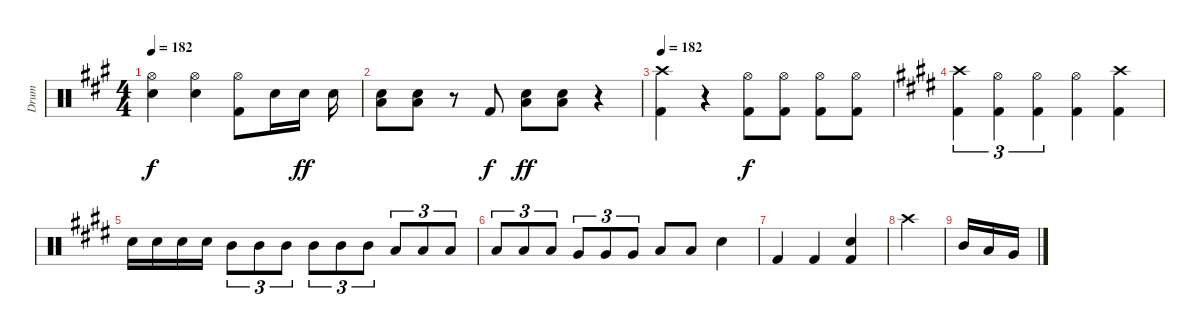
\track ("Drum" "Drum") {instrument percussion}
\staff {score}
\articulation defaults
\ts (4 4)
\tempo 182
\clef neutral
\ks a
("Hi-Hat (open)" "Snare (hit) 2").4{dy f} ("Hi-Hat (open)" "Snare (hit) 2").4 ("Hi-Hat (open)" "Kick (hit) 2").8 "Snare (hit) 2".16 "Snare (hit) 2".16{dy ff} "Snare (hit) 2".16 |
("Snare (hit) 2" "Low Tom (hit)").8 ("Snare (hit) 2" "Low Tom (hit)").8 r.8 "Kick (hit) 2".8{dy f} ("Snare (hit) 2" "Low Tom (hit)").8{dy ff} ("Snare (hit) 2" "Low Tom (hit)").8 r.4 |
\tempo 182
("Crash high (hit)" "Kick (hit) 2").4 r.4 ("Hi-Hat (open)" "Kick (hit) 2").8{dy f} ("Hi-Hat (open)" "Kick (hit) 2").8 ("Hi-Hat (open)" "Kick (hit) 2").8 ("Hi-Hat (open)" "Kick (hit) 2").8 |
\ks c#minor
("Crash high (hit)" "Kick (hit) 2").4{tu (3 2)} ("Hi-Hat (open)" "Kick (hit) 2").4{tu (3 2)} ("Hi-Hat (open)" "Kick (hit) 2").4{tu (3 2)} ("Hi-Hat (open)" "Kick (hit) 2").4 ("Crash high (hit)" "Kick (hit) 2").4 |
"Snare (hit) 2".16 "Snare (hit) 2".16 "Snare (hit) 2".16 "Snare (hit) 2".16 "Mid Tom (hit)".8{tu (3 2)} "Mid Tom (hit)".8{tu (3 2)} "Mid Tom (hit)".8{tu (3 2)} "Mid Tom (hit)".8{tu (3 2)} "Mid Tom (hit)".8{tu (3 2)} "Mid Tom (hit)".8{tu (3 2)} "Low Tom (hit)".8{tu (3 2)} "Low Tom (hit)".8{tu (3 2)} "Low Tom (hit)".8{tu (3 2)} |
"Low Tom (hit)".8{tu (3 2)} "Low Tom (hit)".8{tu (3 2)} "Low Tom (hit)".8{tu (3 2)} "Very Low Tom (hit)".8{tu (3 2)} "Very Low Tom (hit)".8{tu (3 2)} "Very Low Tom (hit)".8{tu (3 2)} "Low Floor Tom (hit)".8 "Low Floor Tom (hit)".8 "Snare (hit) 2".4 |
"Kick (hit) 2".4 "Kick (hit) 2".4 ("Snare (hit) 2" "Kick (hit) 2").4{bd 480} |
"Crash high (hit)".4 |
\ks e "Mid Tom (hit)".16 "Low Tom (hit)".16 "Very Low Tom (hit)".16
